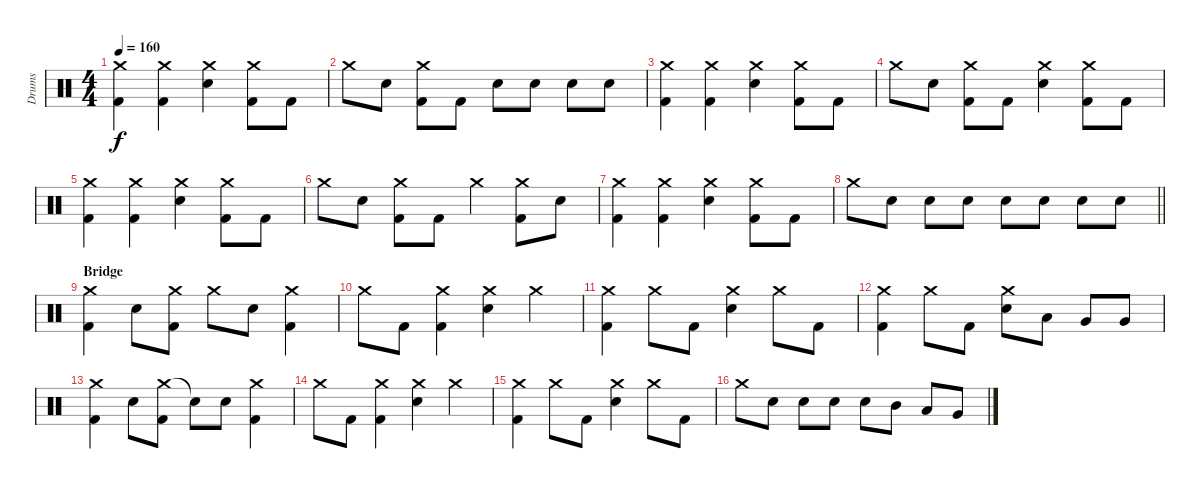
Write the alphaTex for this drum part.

\track ("Drums" "Drums") {instrument percussion}
\staff {score}
\articulation defaults
\ts (4 4)
\tempo 160
\clef neutral
\ks c
("Crash medium (hit)" "Kick (hit) 2").4{dy f} ("Crash medium (hit)" "Kick (hit) 2").4 ("Crash medium (hit)" "Snare (hit) 2").4 ("Crash medium (hit)" "Kick (hit) 2").8 "Kick (hit) 2".8 |
"Crash medium (hit)".8 "Snare (hit) 2".8 ("Crash medium (hit)" "Kick (hit) 2").8 "Kick (hit) 2".8 "Snare (hit) 2".8 "Snare (hit) 2".8 "Snare (hit) 2".8 "Snare (hit) 2".8 |
("Crash medium (hit)" "Kick (hit) 2").4 ("Crash medium (hit)" "Kick (hit) 2").4 ("Crash medium (hit)" "Snare (hit) 2").4 ("Crash medium (hit)" "Kick (hit) 2").8 "Kick (hit) 2".8 |
"Crash medium (hit)".8 "Snare (hit) 2".8 ("Crash medium (hit)" "Kick (hit) 2").8 "Kick (hit) 2".8 ("Crash medium (hit)" "Snare (hit) 2").4 ("Crash medium (hit)" "Kick (hit) 2").8 "Kick (hit) 2".8 |
("Crash medium (hit)" "Kick (hit) 2").4 ("Crash medium (hit)" "Kick (hit) 2").4 ("Crash medium (hit)" "Snare (hit) 2").4 ("Crash medium (hit)" "Kick (hit) 2").8 "Kick (hit) 2".8 |
"Crash medium (hit)".8 "Snare (hit) 2".8 ("Crash medium (hit)" "Kick (hit) 2").8 "Kick (hit) 2".8 "Crash medium (hit)".4 ("Crash medium (hit)" "Kick (hit) 2").8 "Snare (hit) 2".8 |
("Crash medium (hit)" "Kick (hit) 2").4 ("Crash medium (hit)" "Kick (hit) 2").4 ("Crash medium (hit)" "Snare (hit) 2").4 ("Crash medium (hit)" "Kick (hit) 2").8 "Kick (hit) 2".8 |
\barLineRight lightlight "Crash medium (hit)".8 "Snare (hit) 2".8 "Snare (hit) 2".8 "Snare (hit) 2".8 "Snare (hit) 2".8 "Snare (hit) 2".8 "Snare (hit) 2".8 "Snare (hit) 2".8
|
\section ("" "Bridge")
("Crash medium (hit)" "Kick (hit) 2").4 "Snare (hit) 2".8 ("Crash medium (hit)" "Kick (hit) 2").8 "Crash medium (hit)".8 "Snare (hit) 2".8 ("Crash medium (hit)" "Kick (hit) 2").4 |
"Crash medium (hit)".8 "Kick (hit) 2".8 ("Crash medium (hit)" "Kick (hit) 2").4 ("Crash medium (hit)" "Snare (hit) 2").4 "Crash medium (hit)".4 |
("Crash medium (hit)" "Kick (hit) 2").4 "Crash medium (hit)".8 "Kick (hit) 2".8 ("Crash medium (hit)" "Snare (hit) 2").4 "Crash medium (hit)".8 "Kick (hit) 2".8 |
("Crash medium (hit)" "Kick (hit) 2").4 "Crash medium (hit)".8 "Kick (hit) 2".8 ("Crash medium (hit)" "Snare (hit) 2").8 "Low Tom (hit)".8 "Very Low Tom (hit)".8 "Very Low Tom (hit)".8 |
("Crash medium (hit)" "Kick (hit) 2").4 "Snare (hit) 2".8 ("Crash medium (hit)" "Kick (hit) 2").8 "Snare (hit)"{t}.8 "Snare (hit) 2".8 ("Crash medium (hit)" "Kick (hit) 2").4 |
"Crash medium (hit)".8 "Kick (hit) 2".8 ("Crash medium (hit)" "Kick (hit) 2").4 ("Crash medium (hit)" "Snare (hit) 2").4 "Crash medium (hit)".4 |
("Crash medium (hit)" "Kick (hit) 2").4 "Crash medium (hit)".8 "Kick (hit) 2".8 ("Crash medium (hit)" "Snare (hit) 2").4 "Crash medium (hit)".8 "Kick (hit) 2".8 |
"Crash medium (hit)".8 "Snare (hit) 2".8 "Snare (hit) 2".8 "Snare (hit) 2".8 "Snare (hit) 2".8 "Mid Tom (hit)".8 "Low Tom (hit)".8 "Very Low Tom (hit)".8
